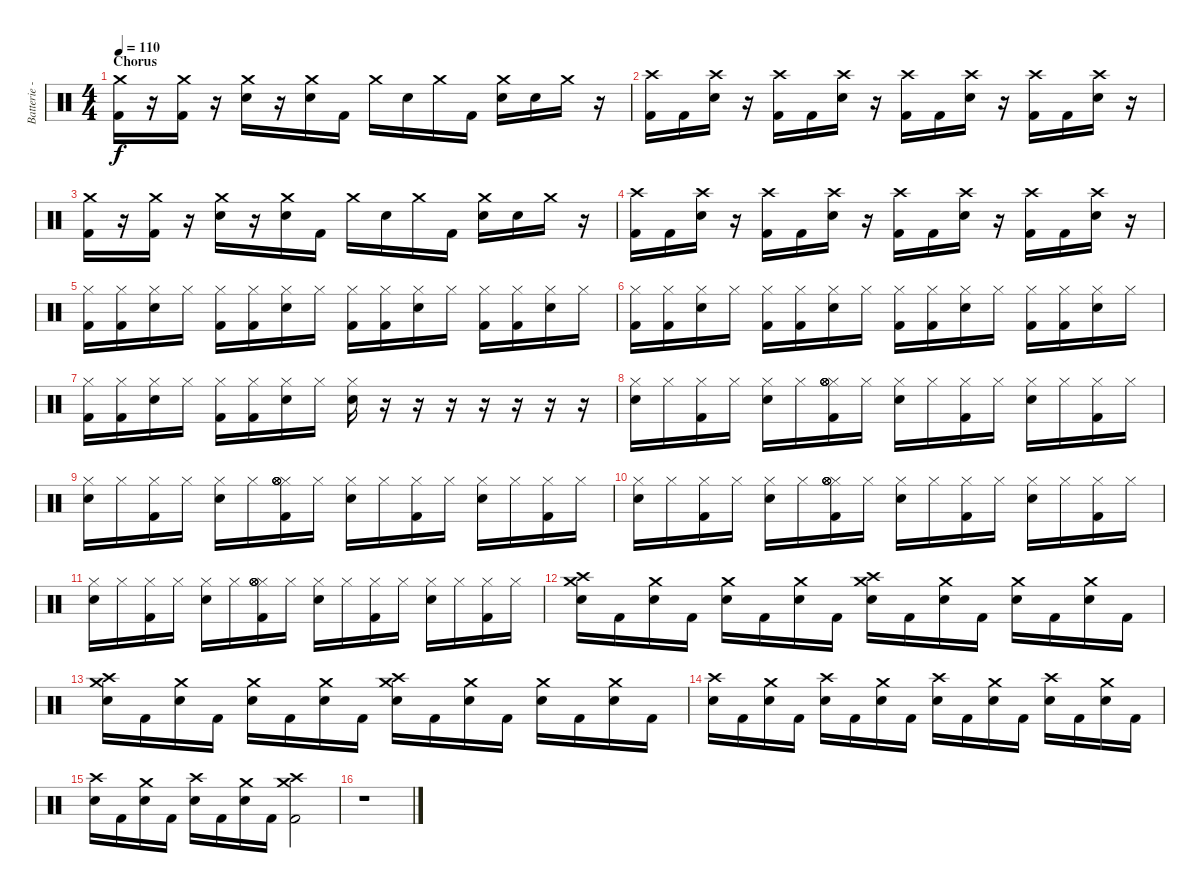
\track ("Batterie - Travis Barker" "Batterie -") {instrument percussion}
\staff {score}
\articulation defaults
\ts (4 4)
\section ("" "Chorus")
\tempo 110
\clef neutral
\ks c
("Crash medium (hit)" "Kick (hit) 2").16{dy f} r.16 ("Crash medium (hit)" "Kick (hit) 2").16 r.16 ("Crash medium (hit)" "Snare (hit) 2").16 r.16 ("Crash medium (hit)" "Snare (hit) 2").16 "Kick (hit) 2".16 "Crash medium (hit)".16 "Snare (hit) 2".16 "Crash medium (hit)".16 "Kick (hit) 2".16 ("Crash medium (hit)" "Snare (hit) 2").16 "Snare (hit) 2".16 "Crash medium (hit)".16 r.16 |
("Crash high (hit)" "Kick (hit) 2").16 "Kick (hit) 2".16 ("Crash high (hit)" "Snare (hit) 2").16 r.16 ("Crash high (hit)" "Kick (hit) 2").16 "Kick (hit) 2".16 ("Crash high (hit)" "Snare (hit) 2").16 r.16 ("Crash high (hit)" "Kick (hit) 2").16 "Kick (hit) 2".16 ("Crash high (hit)" "Snare (hit) 2").16 r.16 ("Crash high (hit)" "Kick (hit) 2").16 "Kick (hit) 2".16 ("Crash high (hit)" "Snare (hit) 2").16 r.16 |
("Crash medium (hit)" "Kick (hit) 2").16 r.16 ("Crash medium (hit)" "Kick (hit) 2").16 r.16 ("Crash medium (hit)" "Snare (hit) 2").16 r.16 ("Crash medium (hit)" "Snare (hit) 2").16 "Kick (hit) 2".16 "Crash medium (hit)".16 "Snare (hit) 2".16 "Crash medium (hit)".16 "Kick (hit) 2".16 ("Crash medium (hit)" "Snare (hit) 2").16 "Snare (hit) 2".16 "Crash medium (hit)".16 r.16 |
("Crash high (hit)" "Kick (hit) 2").16 "Kick (hit) 2".16 ("Crash high (hit)" "Snare (hit) 2").16 r.16 ("Crash high (hit)" "Kick (hit) 2").16 "Kick (hit) 2".16 ("Crash high (hit)" "Snare (hit) 2").16 r.16 ("Crash high (hit)" "Kick (hit) 2").16 "Kick (hit) 2".16 ("Crash high (hit)" "Snare (hit) 2").16 r.16 ("Crash high (hit)" "Kick (hit) 2").16 "Kick (hit) 2".16 ("Crash high (hit)" "Snare (hit) 2").16 r.16 |
("Hi-Hat (closed)" "Kick (hit) 2").16 ("Hi-Hat (closed)" "Kick (hit) 2").16 ("Hi-Hat (closed)" "Snare (hit) 2").16 "Hi-Hat (closed)".16 ("Hi-Hat (closed)" "Kick (hit) 2").16 ("Hi-Hat (closed)" "Kick (hit) 2").16 ("Hi-Hat (closed)" "Snare (hit) 2").16 "Hi-Hat (closed)".16 ("Hi-Hat (closed)" "Kick (hit) 2").16 ("Hi-Hat (closed)" "Kick (hit) 2").16 ("Hi-Hat (closed)" "Snare (hit) 2").16 "Hi-Hat (closed)".16 ("Hi-Hat (closed)" "Kick (hit) 2").16 ("Hi-Hat (closed)" "Kick (hit) 2").16 ("Hi-Hat (closed)" "Snare (hit) 2").16 "Hi-Hat (closed)".16 |
("Hi-Hat (closed)" "Kick (hit) 2").16 ("Hi-Hat (closed)" "Kick (hit) 2").16 ("Hi-Hat (closed)" "Snare (hit) 2").16 "Hi-Hat (closed)".16 ("Hi-Hat (closed)" "Kick (hit) 2").16 ("Hi-Hat (closed)" "Kick (hit) 2").16 ("Hi-Hat (closed)" "Snare (hit) 2").16 "Hi-Hat (closed)".16 ("Hi-Hat (closed)" "Kick (hit) 2").16 ("Hi-Hat (closed)" "Kick (hit) 2").16 ("Hi-Hat (closed)" "Snare (hit) 2").16 "Hi-Hat (closed)".16 ("Hi-Hat (closed)" "Kick (hit) 2").16 ("Hi-Hat (closed)" "Kick (hit) 2").16 ("Hi-Hat (closed)" "Snare (hit) 2").16 "Hi-Hat (closed)".16 |
("Hi-Hat (closed)" "Kick (hit) 2").16 ("Hi-Hat (closed)" "Kick (hit) 2").16 ("Hi-Hat (closed)" "Snare (hit) 2").16 "Hi-Hat (closed)".16 ("Hi-Hat (closed)" "Kick (hit) 2").16 ("Hi-Hat (closed)" "Kick (hit) 2").16 ("Hi-Hat (closed)" "Snare (hit) 2").16 "Hi-Hat (closed)".16 ("Hi-Hat (closed)" "Snare (hit) 2").16 r.16 r.16 r.16 r.16 r.16 r.16 r.16 |
("Hi-Hat (closed)" "Snare (hit) 2").16 "Hi-Hat (closed)".16 ("Hi-Hat (closed)" "Kick (hit) 2").16 "Hi-Hat (closed)".16 ("Hi-Hat (closed)" "Snare (hit) 2").16 "Hi-Hat (closed)".16 ("Hi-Hat (closed)" "Kick (hit) 2" "Hi-Hat (open)" "Hi-Hat (open)" "Hi-Hat (open)" "Hi-Hat (open)").16 "Hi-Hat (closed)".16 ("Hi-Hat (closed)" "Snare (hit) 2").16 "Hi-Hat (closed)".16 ("Hi-Hat (closed)" "Kick (hit) 2").16 "Hi-Hat (closed)".16 ("Hi-Hat (closed)" "Snare (hit) 2").16 "Hi-Hat (closed)".16 ("Hi-Hat (closed)" "Kick (hit) 2").16 "Hi-Hat (closed)".16 |
("Hi-Hat (closed)" "Snare (hit) 2").16 "Hi-Hat (closed)".16 ("Hi-Hat (closed)" "Kick (hit) 2").16 "Hi-Hat (closed)".16 ("Hi-Hat (closed)" "Snare (hit) 2").16 "Hi-Hat (closed)".16 ("Hi-Hat (closed)" "Kick (hit) 2" "Hi-Hat (open)" "Hi-Hat (open)" "Hi-Hat (open)" "Hi-Hat (open)").16 "Hi-Hat (closed)".16 ("Hi-Hat (closed)" "Snare (hit) 2").16 "Hi-Hat (closed)".16 ("Hi-Hat (closed)" "Kick (hit) 2").16 "Hi-Hat (closed)".16 ("Hi-Hat (closed)" "Snare (hit) 2").16 "Hi-Hat (closed)".16 ("Hi-Hat (closed)" "Kick (hit) 2").16 "Hi-Hat (closed)".16 |
("Hi-Hat (closed)" "Snare (hit) 2").16 "Hi-Hat (closed)".16 ("Hi-Hat (closed)" "Kick (hit) 2").16 "Hi-Hat (closed)".16 ("Hi-Hat (closed)" "Snare (hit) 2").16 "Hi-Hat (closed)".16 ("Hi-Hat (closed)" "Kick (hit) 2" "Hi-Hat (open)" "Hi-Hat (open)" "Hi-Hat (open)" "Hi-Hat (open)").16 "Hi-Hat (closed)".16 ("Hi-Hat (closed)" "Snare (hit) 2").16 "Hi-Hat (closed)".16 ("Hi-Hat (closed)" "Kick (hit) 2").16 "Hi-Hat (closed)".16 ("Hi-Hat (closed)" "Snare (hit) 2").16 "Hi-Hat (closed)".16 ("Hi-Hat (closed)" "Kick (hit) 2").16 "Hi-Hat (closed)".16 |
("Hi-Hat (closed)" "Snare (hit) 2").16 "Hi-Hat (closed)".16 ("Hi-Hat (closed)" "Kick (hit) 2").16 "Hi-Hat (closed)".16 ("Hi-Hat (closed)" "Snare (hit) 2").16 "Hi-Hat (closed)".16 ("Hi-Hat (closed)" "Kick (hit) 2" "Hi-Hat (open)" "Hi-Hat (open)" "Hi-Hat (open)" "Hi-Hat (open)").16 "Hi-Hat (closed)".16 ("Hi-Hat (closed)" "Snare (hit) 2").16 "Hi-Hat (closed)".16 ("Hi-Hat (closed)" "Kick (hit) 2").16 "Hi-Hat (closed)".16 ("Hi-Hat (closed)" "Snare (hit) 2").16 "Hi-Hat (closed)".16 ("Hi-Hat (closed)" "Kick (hit) 2").16 "Hi-Hat (closed)".16 |
("Crash medium (hit)" "Snare (hit) 2" "Crash high (hit)").16 "Kick (hit) 2".16 ("Crash medium (hit)" "Snare (hit) 2").16 "Kick (hit) 2".16 ("Crash medium (hit)" "Snare (hit) 2").16 "Kick (hit) 2".16 ("Crash medium (hit)" "Snare (hit) 2").16 "Kick (hit) 2".16 ("Crash medium (hit)" "Snare (hit) 2" "Crash high (hit)").16 "Kick (hit) 2".16 ("Crash medium (hit)" "Snare (hit) 2").16 "Kick (hit) 2".16 ("Crash medium (hit)" "Snare (hit) 2").16 "Kick (hit) 2".16 ("Crash medium (hit)" "Snare (hit) 2").16 "Kick (hit) 2".16 |
("Crash medium (hit)" "Snare (hit) 2" "Crash high (hit)").16 "Kick (hit) 2".16 ("Crash medium (hit)" "Snare (hit) 2").16 "Kick (hit) 2".16 ("Crash medium (hit)" "Snare (hit) 2").16 "Kick (hit) 2".16 ("Crash medium (hit)" "Snare (hit) 2").16 "Kick (hit) 2".16 ("Crash medium (hit)" "Snare (hit) 2" "Crash high (hit)").16 "Kick (hit) 2".16 ("Crash medium (hit)" "Snare (hit) 2").16 "Kick (hit) 2".16 ("Crash medium (hit)" "Snare (hit) 2").16 "Kick (hit) 2".16 ("Crash medium (hit)" "Snare (hit) 2").16 "Kick (hit) 2".16 |
("Crash high (hit)" "Snare (hit) 2").16 "Kick (hit) 2".16 ("Crash medium (hit)" "Snare (hit) 2").16 "Kick (hit) 2".16 ("Crash high (hit)" "Snare (hit) 2").16 "Kick (hit) 2".16 ("Crash medium (hit)" "Snare (hit) 2").16 "Kick (hit) 2".16 ("Crash high (hit)" "Snare (hit) 2").16 "Kick (hit) 2".16 ("Crash medium (hit)" "Snare (hit) 2").16 "Kick (hit) 2".16 ("Crash high (hit)" "Snare (hit) 2").16 "Kick (hit) 2".16 ("Crash medium (hit)" "Snare (hit) 2").16 "Kick (hit) 2".16 |
("Crash high (hit)" "Snare (hit) 2").16 "Kick (hit) 2".16 ("Crash medium (hit)" "Snare (hit) 2").16 "Kick (hit) 2".16 ("Crash high (hit)" "Snare (hit) 2").16 "Kick (hit) 2".16 ("Crash medium (hit)" "Snare (hit) 2").16 "Kick (hit) 2".16 ("Crash medium (hit)" "Crash high (hit)" "Kick (hit) 2").2 |
r.1
